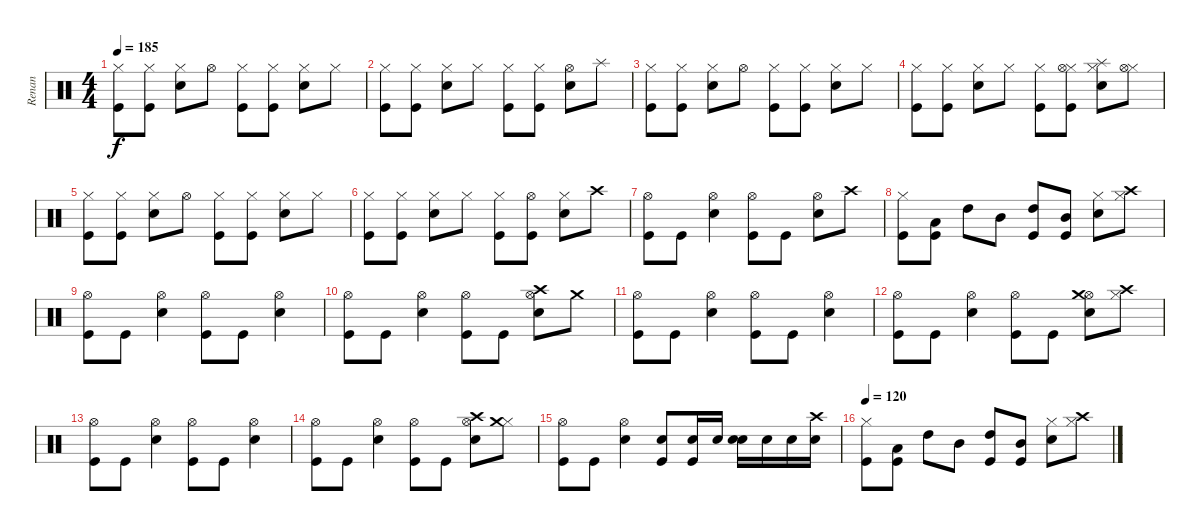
\track ("Renan" "Renan") {instrument percussion}
\staff {score}
\articulation defaults
\ts (4 4)
\tempo 185
\clef neutral
\ks c
("Hi-Hat (closed)" "Kick (hit)").8{dy f} ("Hi-Hat (closed)" "Kick (hit)").8 ("Hi-Hat (closed)" "Snare (hit) 2").8 "Hi-Hat (open)".8 ("Hi-Hat (closed)" "Kick (hit)").8 ("Hi-Hat (closed)" "Kick (hit)").8 ("Hi-Hat (closed)" "Snare (hit) 2").8 "Hi-Hat (closed)".8 |
("Hi-Hat (closed)" "Kick (hit)").8 ("Hi-Hat (closed)" "Kick (hit)").8 ("Hi-Hat (closed)" "Snare (hit) 2").8 "Hi-Hat (closed)".8 ("Hi-Hat (closed)" "Kick (hit)").8 ("Hi-Hat (closed)" "Kick (hit)").8 ("Hi-Hat (open)" "Snare (hit) 2").8 "Splash (hit)".8 |
("Hi-Hat (closed)" "Kick (hit)").8 ("Hi-Hat (closed)" "Kick (hit)").8 ("Hi-Hat (closed)" "Snare (hit) 2").8 "Hi-Hat (open)".8 ("Hi-Hat (closed)" "Kick (hit)").8 ("Hi-Hat (closed)" "Kick (hit)").8 ("Hi-Hat (closed)" "Snare (hit) 2").8 "Hi-Hat (closed)".8 |
("Hi-Hat (closed)" "Kick (hit)").8 ("Hi-Hat (closed)" "Kick (hit)").8 ("Hi-Hat (closed)" "Snare (hit) 2").8 "Hi-Hat (closed)".8 ("Hi-Hat (closed)" "Kick (hit)").8 ("Hi-Hat (closed)" "Hi-Hat (open)" "Kick (hit)").8 ("Hi-Hat (closed)" "Splash (hit)" "Snare (hit) 2").8 ("Hi-Hat (closed)" "Hi-Hat (open)").8 |
("Hi-Hat (closed)" "Kick (hit)").8 ("Hi-Hat (closed)" "Kick (hit)").8 ("Hi-Hat (closed)" "Snare (hit) 2").8 "Hi-Hat (open)".8 ("Hi-Hat (closed)" "Kick (hit)").8 ("Hi-Hat (closed)" "Kick (hit)").8 ("Hi-Hat (closed)" "Snare (hit) 2").8 "Hi-Hat (closed)".8 |
("Hi-Hat (closed)" "Kick (hit)").8 ("Hi-Hat (closed)" "Kick (hit)").8 ("Hi-Hat (closed)" "Snare (hit) 2").8 "Hi-Hat (closed)".8 ("Hi-Hat (closed)" "Kick (hit)").8 ("Hi-Hat (open)" "Kick (hit)").8 ("Hi-Hat (closed)" "Snare (hit) 2").8 "Crash high (hit)".8 |
("Hi-Hat (open)" "Kick (hit)").8 "Kick (hit)".8 ("Hi-Hat (open)" "Snare (hit) 2").4 ("Hi-Hat (open)" "Kick (hit)").8 "Kick (hit)".8 ("Hi-Hat (open)" "Snare (hit) 2").8 "Crash high (hit)".8 |
("Hi-Hat (closed)" "Kick (hit)").8 ("Low Floor Tom (hit)" "Kick (hit)").8 "High Tom (hit)".8 "Mid Tom (hit)".8 ("High Tom (hit)" "Kick (hit)").8 ("Mid Tom (hit)" "Kick (hit)").8 ("Hi-Hat (closed)" "Snare (hit) 2").8 ("Hi-Hat (closed)" "Crash high (hit)").8 |
("Hi-Hat (open)" "Kick (hit)").8 "Kick (hit)".8 ("Hi-Hat (open)" "Snare (hit) 2").4 ("Hi-Hat (open)" "Kick (hit)").8 "Kick (hit)".8 ("Hi-Hat (open)" "Snare (hit) 2").4 |
("Hi-Hat (open)" "Kick (hit)").8 "Kick (hit)".8 ("Hi-Hat (open)" "Snare (hit) 2").4 ("Hi-Hat (open)" "Kick (hit)").8 "Kick (hit)".8 ("Hi-Hat (open)" "Crash high (hit)" "Snare (hit) 2").8 "Crash medium (hit)".8 |
("Hi-Hat (open)" "Kick (hit)").8 "Kick (hit)".8 ("Hi-Hat (open)" "Snare (hit) 2").4 ("Hi-Hat (open)" "Kick (hit)").8 "Kick (hit)".8 ("Hi-Hat (open)" "Snare (hit) 2").4 |
("Hi-Hat (open)" "Kick (hit)").8 "Kick (hit)".8 ("Hi-Hat (open)" "Snare (hit) 2").4 ("Hi-Hat (open)" "Kick (hit)").8 "Kick (hit)".8 ("Hi-Hat (open)" "Crash medium (hit)" "Snare (hit) 2").8 ("Hi-Hat (closed)" "Crash high (hit)").8 |
("Hi-Hat (open)" "Kick (hit)").8 "Kick (hit)".8 ("Hi-Hat (open)" "Snare (hit) 2").4 ("Hi-Hat (open)" "Kick (hit)").8 "Kick (hit)".8 ("Hi-Hat (open)" "Snare (hit) 2").4 |
("Hi-Hat (open)" "Kick (hit)").8 "Kick (hit)".8 ("Hi-Hat (open)" "Snare (hit) 2").4 ("Hi-Hat (open)" "Kick (hit)").8 "Kick (hit)".8 ("Hi-Hat (open)" "Crash high (hit)" "Snare (hit) 2").8 ("Hi-Hat (closed)" "Crash medium (hit)").8 |
("Hi-Hat (open)" "Kick (hit)").8 "Kick (hit)".8 ("Hi-Hat (open)" "Snare (hit) 2").4 ("Electric Snare (hit)" "Kick (hit)").8 ("Electric Snare (hit)" "Kick (hit)").16 "Electric Snare (hit)".16 ("Electric Snare (hit)" "Snare (hit) 2").16 "Electric Snare (hit)".16 "Electric Snare (hit)".16 ("Crash high (hit)" "Electric Snare (hit)").16 |
\tempo 120
("Hi-Hat (closed)" "Kick (hit)").8 ("Low Floor Tom (hit)" "Kick (hit)").8 "High Tom (hit)".8 "Mid Tom (hit)".8 ("High Tom (hit)" "Kick (hit)").8 ("Mid Tom (hit)" "Kick (hit)").8 ("Hi-Hat (closed)" "Snare (hit) 2").8 ("Hi-Hat (closed)" "Crash high (hit)").8
